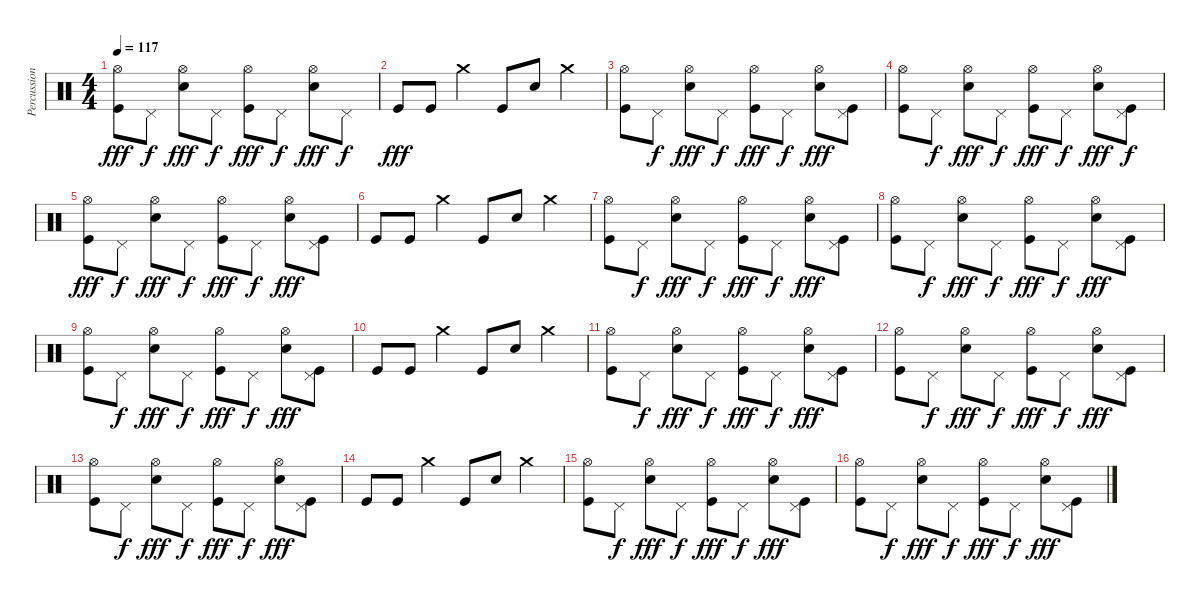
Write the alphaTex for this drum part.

\track ("Percussion" "Percussion") {instrument percussion}
\staff {score}
\articulation defaults
\ts (4 4)
\tempo 117
\clef neutral
\ks c
("Kick (hit)" "Hi-Hat (open)").8{dy fff} "Pedal Hi-Hat (hit)".8{dy f} ("Snare (hit) 2" "Hi-Hat (open)").8{dy fff} "Pedal Hi-Hat (hit)".8{dy f} ("Kick (hit)" "Hi-Hat (open)").8{dy fff} "Pedal Hi-Hat (hit)".8{dy f} ("Snare (hit) 2" "Hi-Hat (open)").8{dy fff} "Pedal Hi-Hat (hit)".8{dy f} |
"Kick (hit)".8{dy fff} "Kick (hit)".8 "Crash medium (hit)".4 "Kick (hit)".8 "Snare (hit) 2".8 "Crash medium (hit)".4 |
("Kick (hit)" "Hi-Hat (open)").8 "Pedal Hi-Hat (hit)".8{dy f} ("Snare (hit) 2" "Hi-Hat (open)").8{dy fff} "Pedal Hi-Hat (hit)".8{dy f} ("Kick (hit)" "Hi-Hat (open)").8{dy fff} "Pedal Hi-Hat (hit)".8{dy f} ("Snare (hit) 2" "Hi-Hat (open)").8{dy fff} ("Kick (hit)" "Pedal Hi-Hat (hit)").8 |
("Kick (hit)" "Hi-Hat (open)").8 "Pedal Hi-Hat (hit)".8{dy f} ("Snare (hit) 2" "Hi-Hat (open)").8{dy fff} "Pedal Hi-Hat (hit)".8{dy f} ("Kick (hit)" "Hi-Hat (open)").8{dy fff} "Pedal Hi-Hat (hit)".8{dy f} ("Snare (hit) 2" "Hi-Hat (open)").8{dy fff} ("Kick (hit)" "Pedal Hi-Hat (hit)").8{dy f} |
("Kick (hit)" "Hi-Hat (open)").8{dy fff} "Pedal Hi-Hat (hit)".8{dy f} ("Snare (hit) 2" "Hi-Hat (open)").8{dy fff} "Pedal Hi-Hat (hit)".8{dy f} ("Kick (hit)" "Hi-Hat (open)").8{dy fff} "Pedal Hi-Hat (hit)".8{dy f} ("Snare (hit) 2" "Hi-Hat (open)").8{dy fff} ("Kick (hit)" "Pedal Hi-Hat (hit)").8 |
"Kick (hit)".8 "Kick (hit)".8 "Crash medium (hit)".4 "Kick (hit)".8 "Snare (hit) 2".8 "Crash medium (hit)".4 |
("Kick (hit)" "Hi-Hat (open)").8 "Pedal Hi-Hat (hit)".8{dy f} ("Snare (hit) 2" "Hi-Hat (open)").8{dy fff} "Pedal Hi-Hat (hit)".8{dy f} ("Kick (hit)" "Hi-Hat (open)").8{dy fff} "Pedal Hi-Hat (hit)".8{dy f} ("Snare (hit) 2" "Hi-Hat (open)").8{dy fff} ("Kick (hit)" "Pedal Hi-Hat (hit)").8 |
("Kick (hit)" "Hi-Hat (open)").8 "Pedal Hi-Hat (hit)".8{dy f} ("Snare (hit) 2" "Hi-Hat (open)").8{dy fff} "Pedal Hi-Hat (hit)".8{dy f} ("Kick (hit)" "Hi-Hat (open)").8{dy fff} "Pedal Hi-Hat (hit)".8{dy f} ("Snare (hit) 2" "Hi-Hat (open)").8{dy fff} ("Kick (hit)" "Pedal Hi-Hat (hit)").8 |
("Kick (hit)" "Hi-Hat (open)").8 "Pedal Hi-Hat (hit)".8{dy f} ("Snare (hit) 2" "Hi-Hat (open)").8{dy fff} "Pedal Hi-Hat (hit)".8{dy f} ("Kick (hit)" "Hi-Hat (open)").8{dy fff} "Pedal Hi-Hat (hit)".8{dy f} ("Snare (hit) 2" "Hi-Hat (open)").8{dy fff} ("Kick (hit)" "Pedal Hi-Hat (hit)").8 |
"Kick (hit)".8 "Kick (hit)".8 "Crash medium (hit)".4 "Kick (hit)".8 "Snare (hit) 2".8 "Crash medium (hit)".4 |
("Kick (hit)" "Hi-Hat (open)").8 "Pedal Hi-Hat (hit)".8{dy f} ("Snare (hit) 2" "Hi-Hat (open)").8{dy fff} "Pedal Hi-Hat (hit)".8{dy f} ("Kick (hit)" "Hi-Hat (open)").8{dy fff} "Pedal Hi-Hat (hit)".8{dy f} ("Snare (hit) 2" "Hi-Hat (open)").8{dy fff} ("Kick (hit)" "Pedal Hi-Hat (hit)").8 |
("Kick (hit)" "Hi-Hat (open)").8 "Pedal Hi-Hat (hit)".8{dy f} ("Snare (hit) 2" "Hi-Hat (open)").8{dy fff} "Pedal Hi-Hat (hit)".8{dy f} ("Kick (hit)" "Hi-Hat (open)").8{dy fff} "Pedal Hi-Hat (hit)".8{dy f} ("Snare (hit) 2" "Hi-Hat (open)").8{dy fff} ("Kick (hit)" "Pedal Hi-Hat (hit)").8 |
("Kick (hit)" "Hi-Hat (open)").8 "Pedal Hi-Hat (hit)".8{dy f} ("Snare (hit) 2" "Hi-Hat (open)").8{dy fff} "Pedal Hi-Hat (hit)".8{dy f} ("Kick (hit)" "Hi-Hat (open)").8{dy fff} "Pedal Hi-Hat (hit)".8{dy f} ("Snare (hit) 2" "Hi-Hat (open)").8{dy fff} ("Kick (hit)" "Pedal Hi-Hat (hit)").8 |
"Kick (hit)".8 "Kick (hit)".8 "Crash medium (hit)".4 "Kick (hit)".8 "Snare (hit) 2".8 "Crash medium (hit)".4 |
("Kick (hit)" "Hi-Hat (open)").8 "Pedal Hi-Hat (hit)".8{dy f} ("Snare (hit) 2" "Hi-Hat (open)").8{dy fff} "Pedal Hi-Hat (hit)".8{dy f} ("Kick (hit)" "Hi-Hat (open)").8{dy fff} "Pedal Hi-Hat (hit)".8{dy f} ("Snare (hit) 2" "Hi-Hat (open)").8{dy fff} ("Kick (hit)" "Pedal Hi-Hat (hit)").8 |
("Kick (hit)" "Hi-Hat (open)").8 "Pedal Hi-Hat (hit)".8{dy f} ("Snare (hit) 2" "Hi-Hat (open)").8{dy fff} "Pedal Hi-Hat (hit)".8{dy f} ("Kick (hit)" "Hi-Hat (open)").8{dy fff} "Pedal Hi-Hat (hit)".8{dy f} ("Snare (hit) 2" "Hi-Hat (open)").8{dy fff} ("Kick (hit)" "Pedal Hi-Hat (hit)").8
